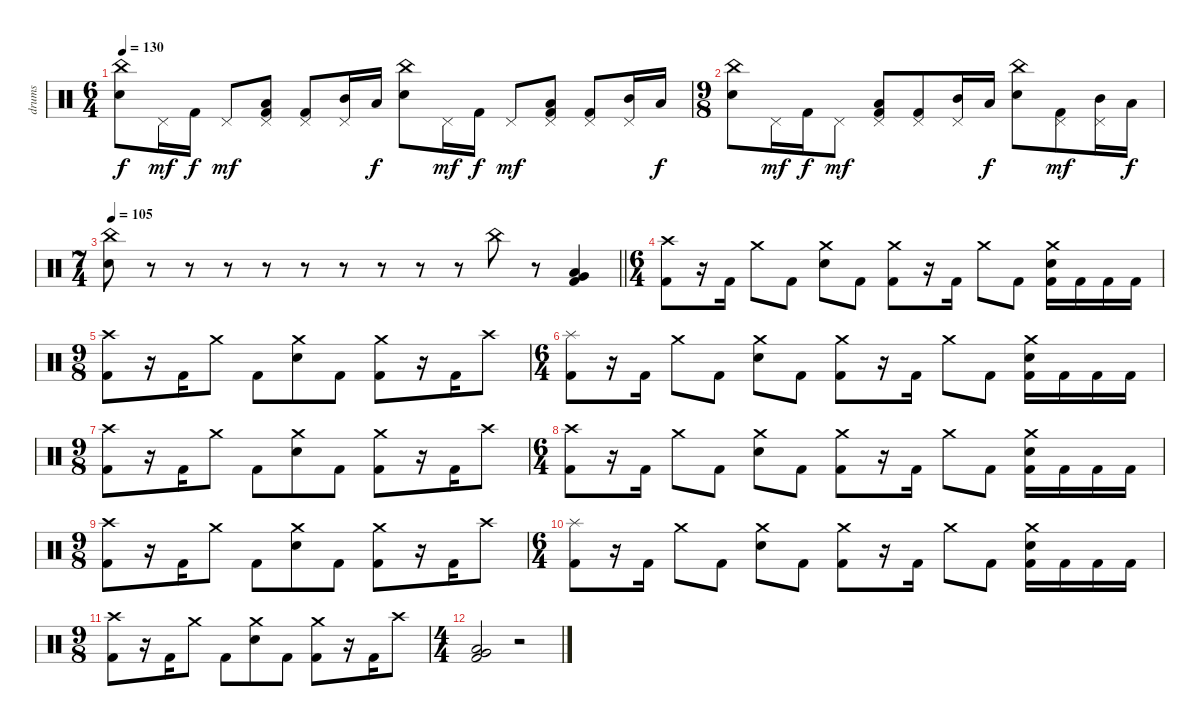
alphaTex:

\track ("drums" "drums") {instrument percussion}
\staff {score}
\articulation defaults
\ts (6 4)
\tempo 130
\clef neutral
\ks c
("China (hit)" "Electric Snare (hit)").8{dy f} "Pedal Hi-Hat (hit)".16{dy mf} "Kick (hit) 2".16{dy f} "Pedal Hi-Hat (hit)".8{dy mf} ("Pedal Hi-Hat (hit)" "Low Floor Tom (hit)" "Kick (hit) 2").8 ("Pedal Hi-Hat (hit)" "Kick (hit) 2").8 ("Pedal Hi-Hat (hit)" "Mid Tom (hit)").16 "Low Tom (hit)".16{dy f} ("China (hit)" "Electric Snare (hit)").8 "Pedal Hi-Hat (hit)".16{dy mf} "Kick (hit) 2".16{dy f} "Pedal Hi-Hat (hit)".8{dy mf} ("Pedal Hi-Hat (hit)" "Low Floor Tom (hit)" "Kick (hit) 2").8 ("Pedal Hi-Hat (hit)" "Kick (hit) 2").8 ("Pedal Hi-Hat (hit)" "Mid Tom (hit)").16 "Low Tom (hit)".16{dy f} |
\ts (9 8)
("China (hit)" "Electric Snare (hit)").8 "Pedal Hi-Hat (hit)".16{dy mf} "Kick (hit) 2".16{dy f} "Pedal Hi-Hat (hit)".8{dy mf} ("Pedal Hi-Hat (hit)" "Low Floor Tom (hit)" "Kick (hit) 2").8 ("Pedal Hi-Hat (hit)" "Kick (hit) 2").8 ("Pedal Hi-Hat (hit)" "Mid Tom (hit)").16 "Low Tom (hit)".16{dy f} ("China (hit)" "Electric Snare (hit)").8 ("Pedal Hi-Hat (hit)" "Kick (hit) 2").8{dy mf} ("Pedal Hi-Hat (hit)" "Mid Tom (hit)").16 "Low Tom (hit)".16{dy f} |
\ts (7 4)
\tempo 105
\barLineRight lightlight
("China (hit)" "Electric Snare (hit)").8 r.8 r.8 r.8 r.8 r.8 r.8 r.8 r.8 r.8 "China (hit)".8 r.8 ("Very Low Tom (hit)" "Low Floor Tom (hit)" "Kick (hit) 2").4 |
\ts (6 4)
\section ("" "")
("Crash high (hit)" "Kick (hit) 2").8 r.16 "Kick (hit) 2".16 "Crash medium (hit)".8 "Kick (hit) 2".8 ("Crash medium (hit)" "Electric Snare (hit)").8 "Kick (hit) 2".8 ("Crash medium (hit)" "Kick (hit) 2").8 r.16 "Kick (hit) 2".16 "Crash medium (hit)".8 "Kick (hit) 2".8 ("Crash medium (hit)" "Electric Snare (hit)" "Kick (hit) 2").16 "Kick (hit) 2".16 "Kick (hit) 2".16 "Kick (hit) 2".16 |
\ts (9 8)
("Crash high (hit)" "Kick (hit) 2").8 r.16 "Kick (hit) 2".16 "Crash medium (hit)".8 "Kick (hit) 2".8 ("Crash medium (hit)" "Electric Snare (hit)").8 "Kick (hit) 2".8 ("Crash medium (hit)" "Kick (hit) 2").8 r.16 "Kick (hit) 2".16 "Crash high (hit)".8 |
\ts (6 4)
("Splash (hit)" "Kick (hit) 2").8 r.16 "Kick (hit) 2".16 "Crash medium (hit)".8 "Kick (hit) 2".8 ("Crash medium (hit)" "Electric Snare (hit)").8 "Kick (hit) 2".8 ("Crash medium (hit)" "Kick (hit) 2").8 r.16 "Kick (hit) 2".16 "Crash medium (hit)".8 "Kick (hit) 2".8 ("Crash medium (hit)" "Electric Snare (hit)" "Kick (hit) 2").16 "Kick (hit) 2".16 "Kick (hit) 2".16 "Kick (hit) 2".16 |
\ts (9 8)
("Crash high (hit)" "Kick (hit) 2").8 r.16 "Kick (hit) 2".16 "Crash medium (hit)".8 "Kick (hit) 2".8 ("Crash medium (hit)" "Electric Snare (hit)").8 "Kick (hit) 2".8 ("Crash medium (hit)" "Kick (hit) 2").8 r.16 "Kick (hit) 2".16 "Crash high (hit)".8 |
\ts (6 4)
("Crash high (hit)" "Kick (hit) 2").8 r.16 "Kick (hit) 2".16 "Crash medium (hit)".8 "Kick (hit) 2".8 ("Crash medium (hit)" "Electric Snare (hit)").8 "Kick (hit) 2".8 ("Crash medium (hit)" "Kick (hit) 2").8 r.16 "Kick (hit) 2".16 "Crash medium (hit)".8 "Kick (hit) 2".8 ("Crash medium (hit)" "Electric Snare (hit)" "Kick (hit) 2").16 "Kick (hit) 2".16 "Kick (hit) 2".16 "Kick (hit) 2".16 |
\ts (9 8)
("Crash high (hit)" "Kick (hit) 2").8 r.16 "Kick (hit) 2".16 "Crash medium (hit)".8 "Kick (hit) 2".8 ("Crash medium (hit)" "Electric Snare (hit)").8 "Kick (hit) 2".8 ("Crash medium (hit)" "Kick (hit) 2").8 r.16 "Kick (hit) 2".16 "Crash high (hit)".8 |
\ts (6 4)
("Splash (hit)" "Kick (hit) 2").8 r.16 "Kick (hit) 2".16 "Crash medium (hit)".8 "Kick (hit) 2".8 ("Crash medium (hit)" "Electric Snare (hit)").8 "Kick (hit) 2".8 ("Crash medium (hit)" "Kick (hit) 2").8 r.16 "Kick (hit) 2".16 "Crash medium (hit)".8 "Kick (hit) 2".8 ("Crash medium (hit)" "Electric Snare (hit)" "Kick (hit) 2").16 "Kick (hit) 2".16 "Kick (hit) 2".16 "Kick (hit) 2".16 |
\ts (9 8)
("Crash high (hit)" "Kick (hit) 2").8 r.16 "Kick (hit) 2".16 "Crash medium (hit)".8 "Kick (hit) 2".8 ("Crash medium (hit)" "Electric Snare (hit)").8 "Kick (hit) 2".8 ("Crash medium (hit)" "Kick (hit) 2").8 r.16 "Kick (hit) 2".16 "Crash high (hit)".8 |
\ts (4 4)
("Very Low Tom (hit)" "Low Floor Tom (hit)" "Kick (hit) 2").2 r.2
